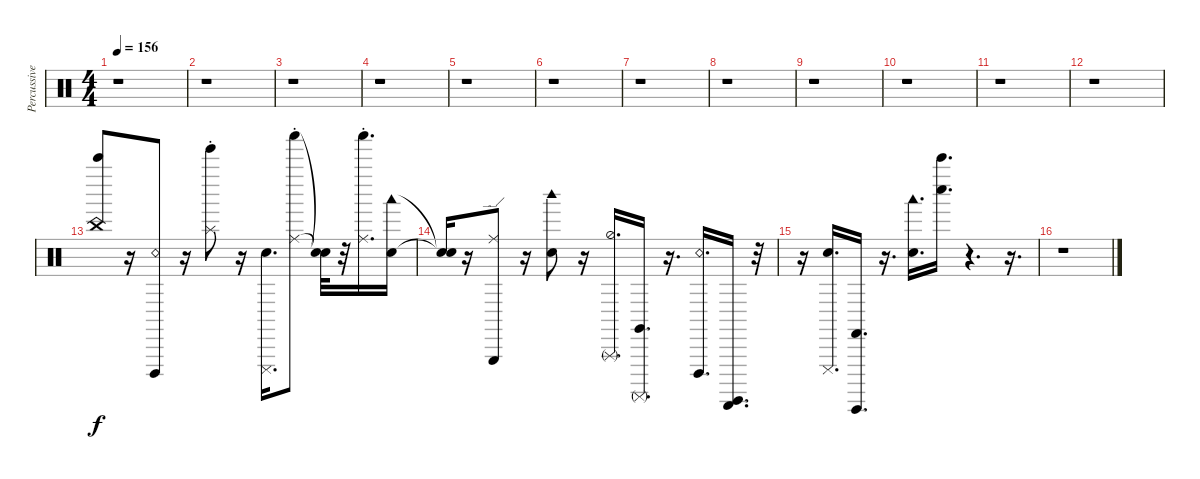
\track ("Percussive Organ" "Percussive") {instrument percussion}
\staff {score}
\articulation defaults
\ts (4 4)
\tempo 156
\clef neutral
\ks c
r.1{dy f} |
r.1 |
r.1 |
r.1 |
r.1 |
r.1 |
r.1 |
r.1 |
r.1 |
r.1 |
r.1 |
r.1 |
("Bell Tree (hit)" "China (choke)").8 r.16 ("Cuica (open)" "Snare (rim shot)").8 r.16 ("Tinkle Bell (hit)" "Splash (choke)").8 r.16 ("Cuica (mute)" "Snare (hit)").16{d} ("Shaker (hit)" "Ride (choke)").8 ("Snare (hit)"{t} "Snare (hit)"{t}).32 r.32 ("Shaker (hit)" "Ride (choke)").16{d} ("Woodblock low (hit)" "Snare (hit)").16 |
("Snare (hit)"{t} "Snare (hit)"{t}).16 r.16 ("Triangle (hit)" "Ride (edge)").8 r.16 ("Woodblock high (hit)" "Snare (hit)").8 r.16 ("Triangle (rnute)" "Hi-Hat (half)").16{d} ("Claves (hit)" "Surdo (mute)").16{d} r.16{d} ("Cuica (open)" "Snare (rim shot)").16{d} ("Guiro (scrap-return)" "Surdo (hit)").16{d} r.32 |
r.16 ("Cuica (mute)" "Snare (hit)").16{d} ("Guiro (hit)" "Castanets (hit)").16{d} r.16{d} ("Woodblock low (hit)" "Snare (hit)").16{d} ("Whistle low (hit)" "Bell Tree (hit)").16{d} r.4{d} r.16{d} |
r.1
